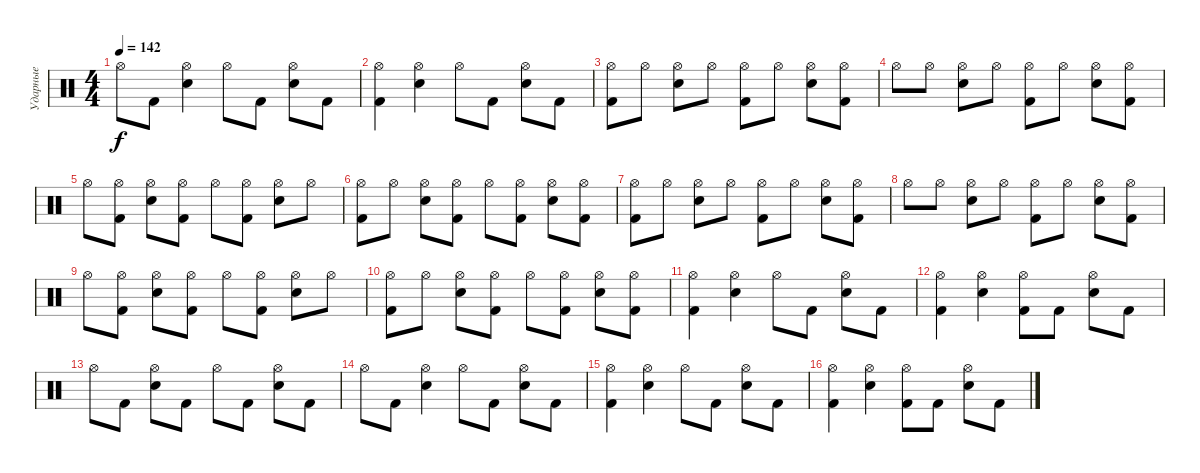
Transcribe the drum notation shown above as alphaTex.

\track ("Ударные" "Ударные") {instrument percussion}
\staff {score}
\articulation defaults
\ts (4 4)
\tempo 142
\clef neutral
\ks c "Hi-Hat (open)".8{dy f} "Kick (hit) 2".8
("Snare (hit) 2" "Hi-Hat (open)").4 "Hi-Hat (open)".8 "Kick (hit) 2".8 ("Snare (hit) 2" "Hi-Hat (open)").8 "Kick (hit) 2".8 |
("Kick (hit) 2" "Hi-Hat (open)").4 ("Snare (hit) 2" "Hi-Hat (open)").4 "Hi-Hat (open)".8 "Kick (hit) 2".8 ("Snare (hit) 2" "Hi-Hat (open)").8 "Kick (hit) 2".8 |
("Kick (hit) 2" "Hi-Hat (open)").8 "Hi-Hat (open)".8 ("Snare (hit) 2" "Hi-Hat (open)").8 "Hi-Hat (open)".8 ("Kick (hit) 2" "Hi-Hat (open)").8 "Hi-Hat (open)".8 ("Snare (hit) 2" "Hi-Hat (open)").8 ("Kick (hit) 2" "Hi-Hat (open)").8 |
"Hi-Hat (open)".8 "Hi-Hat (open)".8 ("Snare (hit) 2" "Hi-Hat (open)").8 "Hi-Hat (open)".8 ("Kick (hit) 2" "Hi-Hat (open)").8 "Hi-Hat (open)".8 ("Snare (hit) 2" "Hi-Hat (open)").8 ("Kick (hit) 2" "Hi-Hat (open)").8 |
"Hi-Hat (open)".8 ("Kick (hit) 2" "Hi-Hat (open)").8 ("Snare (hit) 2" "Hi-Hat (open)").8 ("Kick (hit) 2" "Hi-Hat (open)").8 "Hi-Hat (open)".8 ("Kick (hit) 2" "Hi-Hat (open)").8 ("Snare (hit) 2" "Hi-Hat (open)").8 "Hi-Hat (open)".8 |
("Kick (hit) 2" "Hi-Hat (open)").8 "Hi-Hat (open)".8 ("Snare (hit) 2" "Hi-Hat (open)").8 ("Kick (hit) 2" "Hi-Hat (open)").8 "Hi-Hat (open)".8 ("Kick (hit) 2" "Hi-Hat (open)").8 ("Snare (hit) 2" "Hi-Hat (open)").8 ("Kick (hit) 2" "Hi-Hat (open)").8 |
("Kick (hit) 2" "Hi-Hat (open)").8 "Hi-Hat (open)".8 ("Snare (hit) 2" "Hi-Hat (open)").8 "Hi-Hat (open)".8 ("Kick (hit) 2" "Hi-Hat (open)").8 "Hi-Hat (open)".8 ("Snare (hit) 2" "Hi-Hat (open)").8 ("Kick (hit) 2" "Hi-Hat (open)").8 |
"Hi-Hat (open)".8 "Hi-Hat (open)".8 ("Snare (hit) 2" "Hi-Hat (open)").8 "Hi-Hat (open)".8 ("Kick (hit) 2" "Hi-Hat (open)").8 "Hi-Hat (open)".8 ("Snare (hit) 2" "Hi-Hat (open)").8 ("Kick (hit) 2" "Hi-Hat (open)").8 |
"Hi-Hat (open)".8 ("Kick (hit) 2" "Hi-Hat (open)").8 ("Snare (hit) 2" "Hi-Hat (open)").8 ("Kick (hit) 2" "Hi-Hat (open)").8 "Hi-Hat (open)".8 ("Kick (hit) 2" "Hi-Hat (open)").8 ("Snare (hit) 2" "Hi-Hat (open)").8 "Hi-Hat (open)".8 |
("Kick (hit) 2" "Hi-Hat (open)").8 "Hi-Hat (open)".8 ("Snare (hit) 2" "Hi-Hat (open)").8 ("Kick (hit) 2" "Hi-Hat (open)").8 "Hi-Hat (open)".8 ("Kick (hit) 2" "Hi-Hat (open)").8 ("Snare (hit) 2" "Hi-Hat (open)").8 ("Kick (hit) 2" "Hi-Hat (open)").8 |
("Kick (hit) 2" "Hi-Hat (open)").4 ("Snare (hit) 2" "Hi-Hat (open)").4 "Hi-Hat (open)".8 "Kick (hit) 2".8 ("Snare (hit) 2" "Hi-Hat (open)").8 "Kick (hit) 2".8 |
("Kick (hit) 2" "Hi-Hat (open)").4 ("Snare (hit) 2" "Hi-Hat (open)").4 ("Kick (hit) 2" "Hi-Hat (open)").8 "Kick (hit) 2".8 ("Snare (hit) 2" "Hi-Hat (open)").8 "Kick (hit) 2".8 |
"Hi-Hat (open)".8 "Kick (hit) 2".8 ("Snare (hit) 2" "Hi-Hat (open)").8 "Kick (hit) 2".8 "Hi-Hat (open)".8 "Kick (hit) 2".8 ("Snare (hit) 2" "Hi-Hat (open)").8 "Kick (hit) 2".8 |
"Hi-Hat (open)".8 "Kick (hit) 2".8 ("Snare (hit) 2" "Hi-Hat (open)").4 "Hi-Hat (open)".8 "Kick (hit) 2".8 ("Snare (hit) 2" "Hi-Hat (open)").8 "Kick (hit) 2".8 |
("Kick (hit) 2" "Hi-Hat (open)").4 ("Snare (hit) 2" "Hi-Hat (open)").4 "Hi-Hat (open)".8 "Kick (hit) 2".8 ("Snare (hit) 2" "Hi-Hat (open)").8 "Kick (hit) 2".8 |
("Kick (hit) 2" "Hi-Hat (open)").4 ("Snare (hit) 2" "Hi-Hat (open)").4 ("Kick (hit) 2" "Hi-Hat (open)").8 "Kick (hit) 2".8 ("Snare (hit) 2" "Hi-Hat (open)").8 "Kick (hit) 2".8
